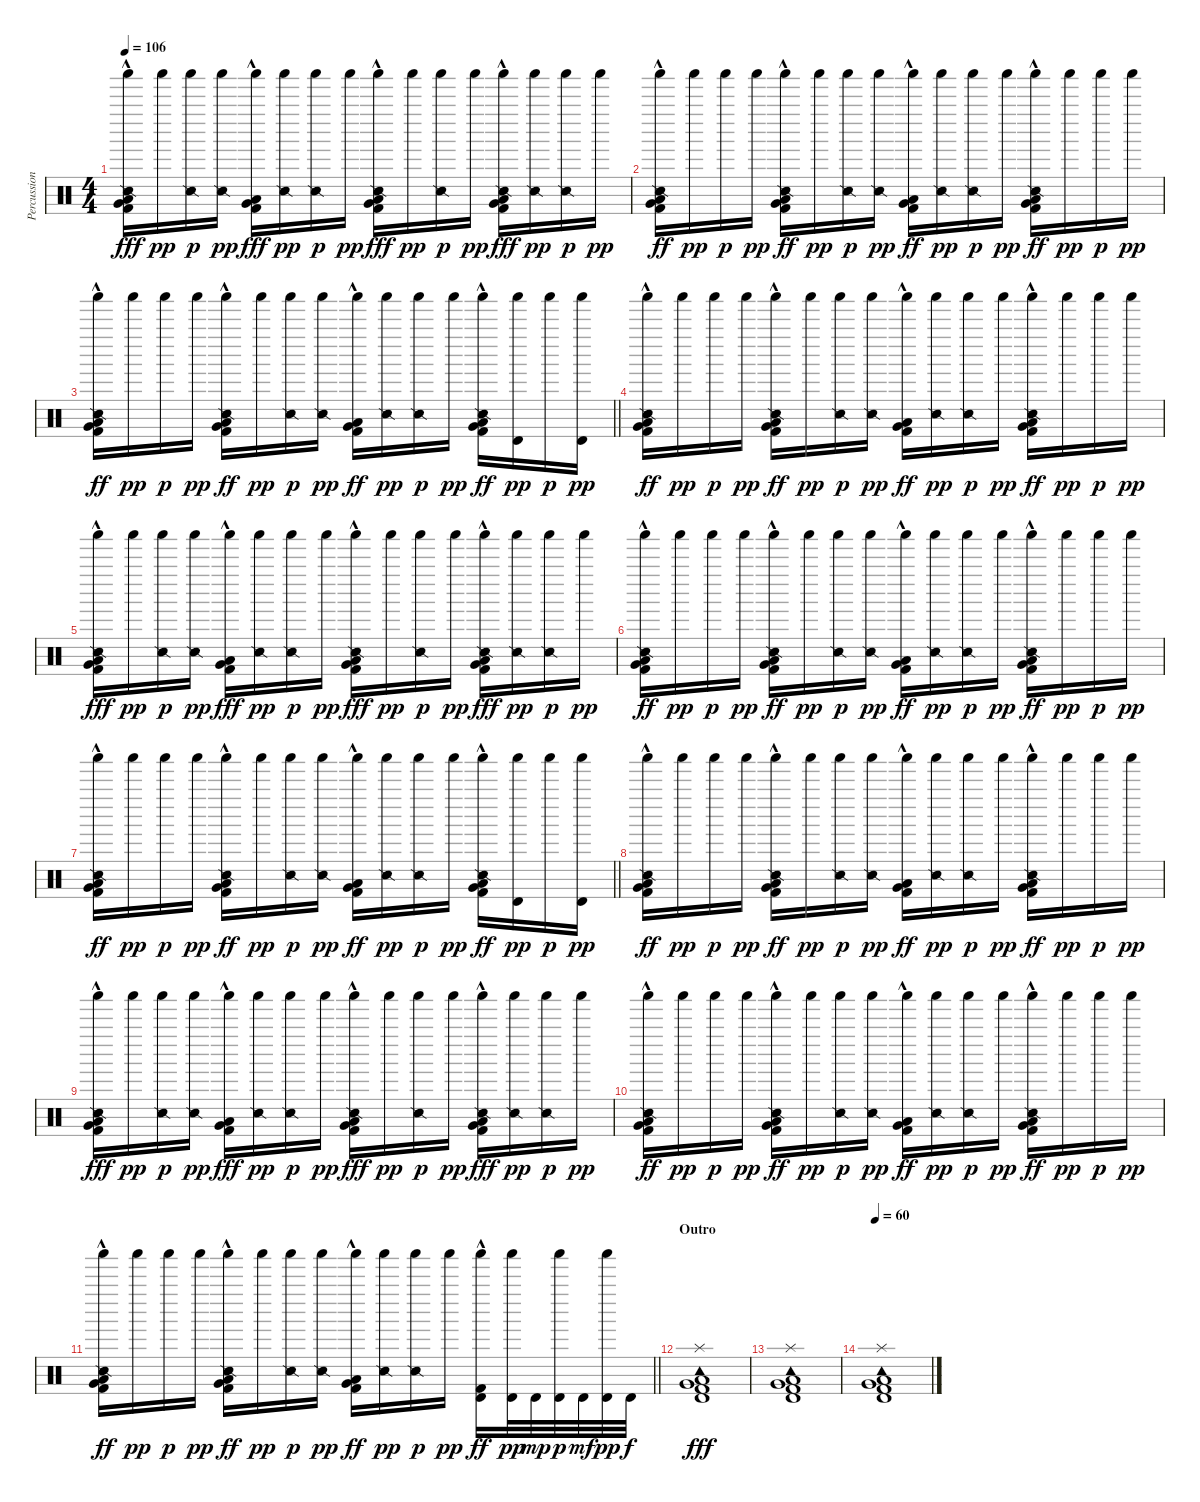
\track ("Percussion" "Percussion") {instrument percussion}
\staff {score}
\articulation defaults
\ts (4 4)
\tempo 106
\clef neutral
\ks c
("Low Floor Tom (hit)" "Very Low Tom (hit)" "Snare (side stick) 2" "Shaker (hit)" "Kick (hit) 2"{hac}).16{dy fff} "Shaker (hit)".16{dy pp} ("Snare (side stick) 2" "Shaker (hit)").16{dy p} ("Snare (side stick) 2" "Shaker (hit)").16{dy pp} ("Low Floor Tom (hit)" "Very Low Tom (hit)" "Shaker (hit)" "Kick (hit) 2"{hac}).16{dy fff} ("Snare (side stick) 2" "Shaker (hit)").16{dy pp} ("Snare (side stick) 2" "Shaker (hit)").16{dy p} "Shaker (hit)".16{dy pp} ("Low Floor Tom (hit)" "Very Low Tom (hit)" "Snare (side stick) 2" "Shaker (hit)" "Kick (hit) 2"{hac}).16{dy fff} "Shaker (hit)".16{dy pp} ("Snare (side stick) 2" "Shaker (hit)").16{dy p} "Shaker (hit)".16{dy pp} ("Low Floor Tom (hit)" "Very Low Tom (hit)" "Snare (side stick) 2" "Shaker (hit)" "Kick (hit) 2"{hac}).16{dy fff} ("Snare (side stick) 2" "Shaker (hit)").16{dy pp} ("Snare (side stick) 2" "Shaker (hit)").16{dy p} "Shaker (hit)".16{dy pp} |
("Low Floor Tom (hit)" "Very Low Tom (hit)" "Snare (side stick) 2" "Shaker (hit)" "Kick (hit) 2"{hac}).16{dy ff} "Shaker (hit)".16{dy pp} "Shaker (hit)".16{dy p} "Shaker (hit)".16{dy pp} ("Low Floor Tom (hit)" "Very Low Tom (hit)" "Snare (side stick) 2" "Shaker (hit)" "Kick (hit) 2"{hac}).16{dy ff} "Shaker (hit)".16{dy pp} ("Snare (side stick) 2" "Shaker (hit)").16{dy p} ("Snare (side stick) 2" "Shaker (hit)").16{dy pp} ("Low Floor Tom (hit)" "Very Low Tom (hit)" "Shaker (hit)" "Kick (hit) 2"{hac}).16{dy ff} ("Snare (side stick) 2" "Shaker (hit)").16{dy pp} ("Snare (side stick) 2" "Shaker (hit)").16{dy p} "Shaker (hit)".16{dy pp} ("Low Floor Tom (hit)" "Very Low Tom (hit)" "Snare (side stick) 2" "Shaker (hit)" "Kick (hit) 2"{hac}).16{dy ff} "Shaker (hit)".16{dy pp} "Shaker (hit)".16{dy p} "Shaker (hit)".16{dy pp} |
\barLineRight lightlight
("Low Floor Tom (hit)" "Very Low Tom (hit)" "Snare (side stick) 2" "Shaker (hit)" "Kick (hit) 2"{hac}).16{dy ff} "Shaker (hit)".16{dy pp} "Shaker (hit)".16{dy p} "Shaker (hit)".16{dy pp} ("Low Floor Tom (hit)" "Very Low Tom (hit)" "Snare (side stick) 2" "Shaker (hit)" "Kick (hit) 2"{hac}).16{dy ff} "Shaker (hit)".16{dy pp} ("Snare (side stick) 2" "Shaker (hit)").16{dy p} ("Snare (side stick) 2" "Shaker (hit)").16{dy pp} ("Low Floor Tom (hit)" "Very Low Tom (hit)" "Shaker (hit)" "Kick (hit) 2"{hac}).16{dy ff} ("Snare (side stick) 2" "Shaker (hit)").16{dy pp} ("Snare (side stick) 2" "Shaker (hit)").16{dy p} "Shaker (hit)".16{dy pp} ("Low Floor Tom (hit)" "Very Low Tom (hit)" "Snare (side stick) 2" "Shaker (hit)" "Kick (hit) 2"{hac}).16{dy ff} ("Timbale high (hit)" "Shaker (hit)").16{dy pp} "Shaker (hit)".16{dy p} ("Timbale high (hit)" "Shaker (hit)").16{dy pp} |
("Low Floor Tom (hit)" "Very Low Tom (hit)" "Snare (side stick) 2" "Shaker (hit)" "Kick (hit) 2"{hac}).16{dy ff} "Shaker (hit)".16{dy pp} "Shaker (hit)".16{dy p} "Shaker (hit)".16{dy pp} ("Low Floor Tom (hit)" "Very Low Tom (hit)" "Snare (side stick) 2" "Shaker (hit)" "Kick (hit) 2"{hac}).16{dy ff} "Shaker (hit)".16{dy pp} ("Snare (side stick) 2" "Shaker (hit)").16{dy p} ("Snare (side stick) 2" "Shaker (hit)").16{dy pp} ("Low Floor Tom (hit)" "Very Low Tom (hit)" "Shaker (hit)" "Kick (hit) 2"{hac}).16{dy ff} ("Snare (side stick) 2" "Shaker (hit)").16{dy pp} ("Snare (side stick) 2" "Shaker (hit)").16{dy p} "Shaker (hit)".16{dy pp} ("Low Floor Tom (hit)" "Very Low Tom (hit)" "Snare (side stick) 2" "Shaker (hit)" "Kick (hit) 2"{hac}).16{dy ff} "Shaker (hit)".16{dy pp} "Shaker (hit)".16{dy p} "Shaker (hit)".16{dy pp} |
("Low Floor Tom (hit)" "Very Low Tom (hit)" "Snare (side stick) 2" "Shaker (hit)" "Kick (hit) 2"{hac}).16{dy fff} "Shaker (hit)".16{dy pp} ("Snare (side stick) 2" "Shaker (hit)").16{dy p} ("Snare (side stick) 2" "Shaker (hit)").16{dy pp} ("Low Floor Tom (hit)" "Very Low Tom (hit)" "Shaker (hit)" "Kick (hit) 2"{hac}).16{dy fff} ("Snare (side stick) 2" "Shaker (hit)").16{dy pp} ("Snare (side stick) 2" "Shaker (hit)").16{dy p} "Shaker (hit)".16{dy pp} ("Low Floor Tom (hit)" "Very Low Tom (hit)" "Snare (side stick) 2" "Shaker (hit)" "Kick (hit) 2"{hac}).16{dy fff} "Shaker (hit)".16{dy pp} ("Snare (side stick) 2" "Shaker (hit)").16{dy p} "Shaker (hit)".16{dy pp} ("Low Floor Tom (hit)" "Very Low Tom (hit)" "Snare (side stick) 2" "Shaker (hit)" "Kick (hit) 2"{hac}).16{dy fff} ("Snare (side stick) 2" "Shaker (hit)").16{dy pp} ("Snare (side stick) 2" "Shaker (hit)").16{dy p} "Shaker (hit)".16{dy pp} |
("Low Floor Tom (hit)" "Very Low Tom (hit)" "Snare (side stick) 2" "Shaker (hit)" "Kick (hit) 2"{hac}).16{dy ff} "Shaker (hit)".16{dy pp} "Shaker (hit)".16{dy p} "Shaker (hit)".16{dy pp} ("Low Floor Tom (hit)" "Very Low Tom (hit)" "Snare (side stick) 2" "Shaker (hit)" "Kick (hit) 2"{hac}).16{dy ff} "Shaker (hit)".16{dy pp} ("Snare (side stick) 2" "Shaker (hit)").16{dy p} ("Snare (side stick) 2" "Shaker (hit)").16{dy pp} ("Low Floor Tom (hit)" "Very Low Tom (hit)" "Shaker (hit)" "Kick (hit) 2"{hac}).16{dy ff} ("Snare (side stick) 2" "Shaker (hit)").16{dy pp} ("Snare (side stick) 2" "Shaker (hit)").16{dy p} "Shaker (hit)".16{dy pp} ("Low Floor Tom (hit)" "Very Low Tom (hit)" "Snare (side stick) 2" "Shaker (hit)" "Kick (hit) 2"{hac}).16{dy ff} "Shaker (hit)".16{dy pp} "Shaker (hit)".16{dy p} "Shaker (hit)".16{dy pp} |
\barLineRight lightlight
("Low Floor Tom (hit)" "Very Low Tom (hit)" "Snare (side stick) 2" "Shaker (hit)" "Kick (hit) 2"{hac}).16{dy ff} "Shaker (hit)".16{dy pp} "Shaker (hit)".16{dy p} "Shaker (hit)".16{dy pp} ("Low Floor Tom (hit)" "Very Low Tom (hit)" "Snare (side stick) 2" "Shaker (hit)" "Kick (hit) 2"{hac}).16{dy ff} "Shaker (hit)".16{dy pp} ("Snare (side stick) 2" "Shaker (hit)").16{dy p} ("Snare (side stick) 2" "Shaker (hit)").16{dy pp} ("Low Floor Tom (hit)" "Very Low Tom (hit)" "Shaker (hit)" "Kick (hit) 2"{hac}).16{dy ff} ("Snare (side stick) 2" "Shaker (hit)").16{dy pp} ("Snare (side stick) 2" "Shaker (hit)").16{dy p} "Shaker (hit)".16{dy pp} ("Low Floor Tom (hit)" "Very Low Tom (hit)" "Snare (side stick) 2" "Shaker (hit)" "Kick (hit) 2"{hac}).16{dy ff} ("Timbale high (hit)" "Shaker (hit)").16{dy pp} "Shaker (hit)".16{dy p} ("Timbale high (hit)" "Shaker (hit)").16{dy pp} |
("Low Floor Tom (hit)" "Very Low Tom (hit)" "Snare (side stick) 2" "Shaker (hit)" "Kick (hit) 2"{hac}).16{dy ff} "Shaker (hit)".16{dy pp} "Shaker (hit)".16{dy p} "Shaker (hit)".16{dy pp} ("Low Floor Tom (hit)" "Very Low Tom (hit)" "Snare (side stick) 2" "Shaker (hit)" "Kick (hit) 2"{hac}).16{dy ff} "Shaker (hit)".16{dy pp} ("Snare (side stick) 2" "Shaker (hit)").16{dy p} ("Snare (side stick) 2" "Shaker (hit)").16{dy pp} ("Low Floor Tom (hit)" "Very Low Tom (hit)" "Shaker (hit)" "Kick (hit) 2"{hac}).16{dy ff} ("Snare (side stick) 2" "Shaker (hit)").16{dy pp} ("Snare (side stick) 2" "Shaker (hit)").16{dy p} "Shaker (hit)".16{dy pp} ("Low Floor Tom (hit)" "Very Low Tom (hit)" "Snare (side stick) 2" "Shaker (hit)" "Kick (hit) 2"{hac}).16{dy ff} "Shaker (hit)".16{dy pp} "Shaker (hit)".16{dy p} "Shaker (hit)".16{dy pp} |
("Low Floor Tom (hit)" "Very Low Tom (hit)" "Snare (side stick) 2" "Shaker (hit)" "Kick (hit) 2"{hac}).16{dy fff} "Shaker (hit)".16{dy pp} ("Snare (side stick) 2" "Shaker (hit)").16{dy p} ("Snare (side stick) 2" "Shaker (hit)").16{dy pp} ("Low Floor Tom (hit)" "Very Low Tom (hit)" "Shaker (hit)" "Kick (hit) 2"{hac}).16{dy fff} ("Snare (side stick) 2" "Shaker (hit)").16{dy pp} ("Snare (side stick) 2" "Shaker (hit)").16{dy p} "Shaker (hit)".16{dy pp} ("Low Floor Tom (hit)" "Very Low Tom (hit)" "Snare (side stick) 2" "Shaker (hit)" "Kick (hit) 2"{hac}).16{dy fff} "Shaker (hit)".16{dy pp} ("Snare (side stick) 2" "Shaker (hit)").16{dy p} "Shaker (hit)".16{dy pp} ("Low Floor Tom (hit)" "Very Low Tom (hit)" "Snare (side stick) 2" "Shaker (hit)" "Kick (hit) 2"{hac}).16{dy fff} ("Snare (side stick) 2" "Shaker (hit)").16{dy pp} ("Snare (side stick) 2" "Shaker (hit)").16{dy p} "Shaker (hit)".16{dy pp} |
("Low Floor Tom (hit)" "Very Low Tom (hit)" "Snare (side stick) 2" "Shaker (hit)" "Kick (hit) 2"{hac}).16{dy ff} "Shaker (hit)".16{dy pp} "Shaker (hit)".16{dy p} "Shaker (hit)".16{dy pp} ("Low Floor Tom (hit)" "Very Low Tom (hit)" "Snare (side stick) 2" "Shaker (hit)" "Kick (hit) 2"{hac}).16{dy ff} "Shaker (hit)".16{dy pp} ("Snare (side stick) 2" "Shaker (hit)").16{dy p} ("Snare (side stick) 2" "Shaker (hit)").16{dy pp} ("Low Floor Tom (hit)" "Very Low Tom (hit)" "Shaker (hit)" "Kick (hit) 2"{hac}).16{dy ff} ("Snare (side stick) 2" "Shaker (hit)").16{dy pp} ("Snare (side stick) 2" "Shaker (hit)").16{dy p} "Shaker (hit)".16{dy pp} ("Low Floor Tom (hit)" "Very Low Tom (hit)" "Snare (side stick) 2" "Shaker (hit)" "Kick (hit) 2"{hac}).16{dy ff} "Shaker (hit)".16{dy pp} "Shaker (hit)".16{dy p} "Shaker (hit)".16{dy pp} |
\barLineRight lightlight
("Low Floor Tom (hit)" "Very Low Tom (hit)" "Snare (side stick) 2" "Shaker (hit)" "Kick (hit) 2"{hac}).16{dy ff} "Shaker (hit)".16{dy pp} "Shaker (hit)".16{dy p} "Shaker (hit)".16{dy pp} ("Low Floor Tom (hit)" "Very Low Tom (hit)" "Snare (side stick) 2" "Shaker (hit)" "Kick (hit) 2"{hac}).16{dy ff} "Shaker (hit)".16{dy pp} ("Snare (side stick) 2" "Shaker (hit)").16{dy p} ("Snare (side stick) 2" "Shaker (hit)").16{dy pp} ("Low Floor Tom (hit)" "Very Low Tom (hit)" "Shaker (hit)" "Kick (hit) 2"{hac}).16{dy ff} ("Snare (side stick) 2" "Shaker (hit)").16{dy pp} ("Snare (side stick) 2" "Shaker (hit)").16{dy p} "Shaker (hit)".16{dy pp} ("Timbale high (hit)" "Shaker (hit)" "Kick (hit) 2"{hac}).16{dy ff} ("Timbale high (hit)" "Shaker (hit)").32{dy pp} "Timbale high (hit)".32{dy mp} ("Timbale high (hit)" "Shaker (hit)").32{dy p} "Timbale high (hit)".32{dy mf} ("Timbale high (hit)" "Shaker (hit)").32{dy pp} "Timbale high (hit)".32{dy f} |
\section ("" "Outro")
("Timbale high (hit)" "Splash (hit)" "Tambourine (hit)" "Very Low Tom (hit)" "Low Floor Tom (hit)" "Kick (hit) 2").1{dy fff} |
("Timbale high (hit)" "Splash (hit)" "Tambourine (hit)" "Very Low Tom (hit)" "Low Floor Tom (hit)" "Kick (hit) 2").1 |
\tempo 60
("Timbale high (hit)" "Splash (hit)" "Tambourine (hit)" "Very Low Tom (hit)" "Low Floor Tom (hit)" "Kick (hit) 2").1
